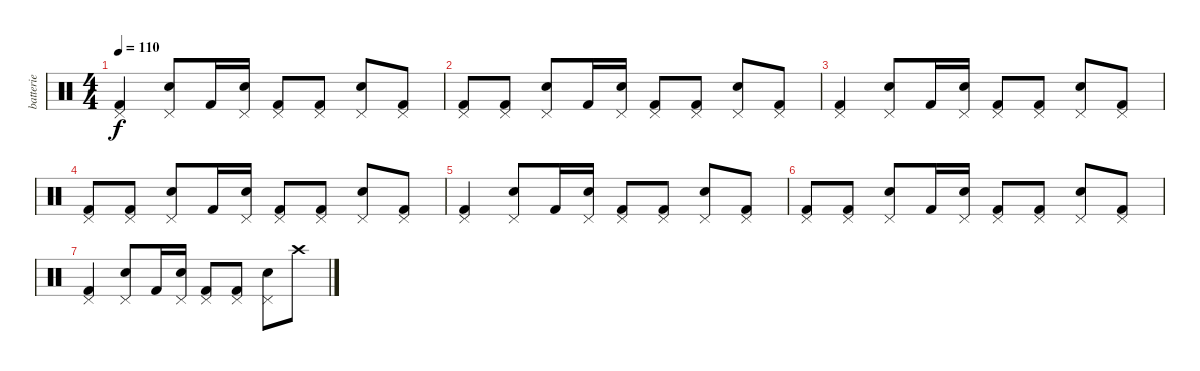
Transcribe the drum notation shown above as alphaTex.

\track ("batterie" "batterie") {instrument percussion}
\staff {score}
\articulation defaults
\ts (4 4)
\tempo 110
\clef neutral
\ks c
("Pedal Hi-Hat (hit)" "Kick (hit) 2").4{dy f} ("Pedal Hi-Hat (hit)" "Snare (hit) 2").8 "Kick (hit) 2".16 ("Pedal Hi-Hat (hit)" "Snare (hit) 2").16 ("Pedal Hi-Hat (hit)" "Kick (hit) 2").8 ("Pedal Hi-Hat (hit)" "Kick (hit) 2").8 ("Pedal Hi-Hat (hit)" "Snare (hit) 2").8 ("Pedal Hi-Hat (hit)" "Kick (hit) 2").8 |
("Pedal Hi-Hat (hit)" "Kick (hit) 2").8 ("Pedal Hi-Hat (hit)" "Kick (hit) 2").8 ("Pedal Hi-Hat (hit)" "Snare (hit) 2").8 "Kick (hit) 2".16 ("Pedal Hi-Hat (hit)" "Snare (hit) 2").16 ("Pedal Hi-Hat (hit)" "Kick (hit) 2").8 ("Pedal Hi-Hat (hit)" "Kick (hit) 2").8 ("Pedal Hi-Hat (hit)" "Snare (hit) 2").8 ("Pedal Hi-Hat (hit)" "Kick (hit) 2").8 |
("Pedal Hi-Hat (hit)" "Kick (hit) 2").4 ("Pedal Hi-Hat (hit)" "Snare (hit) 2").8 "Kick (hit) 2".16 ("Pedal Hi-Hat (hit)" "Snare (hit) 2").16 ("Pedal Hi-Hat (hit)" "Kick (hit) 2").8 ("Pedal Hi-Hat (hit)" "Kick (hit) 2").8 ("Pedal Hi-Hat (hit)" "Snare (hit) 2").8 ("Pedal Hi-Hat (hit)" "Kick (hit) 2").8 |
("Pedal Hi-Hat (hit)" "Kick (hit) 2").8 ("Pedal Hi-Hat (hit)" "Kick (hit) 2").8 ("Pedal Hi-Hat (hit)" "Snare (hit) 2").8 "Kick (hit) 2".16 ("Pedal Hi-Hat (hit)" "Snare (hit) 2").16 ("Pedal Hi-Hat (hit)" "Kick (hit) 2").8 ("Pedal Hi-Hat (hit)" "Kick (hit) 2").8 ("Pedal Hi-Hat (hit)" "Snare (hit) 2").8 ("Pedal Hi-Hat (hit)" "Kick (hit) 2").8 |
("Pedal Hi-Hat (hit)" "Kick (hit) 2").4 ("Pedal Hi-Hat (hit)" "Snare (hit) 2").8 "Kick (hit) 2".16 ("Pedal Hi-Hat (hit)" "Snare (hit) 2").16 ("Pedal Hi-Hat (hit)" "Kick (hit) 2").8 ("Pedal Hi-Hat (hit)" "Kick (hit) 2").8 ("Pedal Hi-Hat (hit)" "Snare (hit) 2").8 ("Pedal Hi-Hat (hit)" "Kick (hit) 2").8 |
("Pedal Hi-Hat (hit)" "Kick (hit) 2").8 ("Pedal Hi-Hat (hit)" "Kick (hit) 2").8 ("Pedal Hi-Hat (hit)" "Snare (hit) 2").8 "Kick (hit) 2".16 ("Pedal Hi-Hat (hit)" "Snare (hit) 2").16 ("Pedal Hi-Hat (hit)" "Kick (hit) 2").8 ("Pedal Hi-Hat (hit)" "Kick (hit) 2").8 ("Pedal Hi-Hat (hit)" "Snare (hit) 2").8 ("Pedal Hi-Hat (hit)" "Kick (hit) 2").8 |
("Pedal Hi-Hat (hit)" "Kick (hit) 2").4 ("Pedal Hi-Hat (hit)" "Snare (hit) 2").8 "Kick (hit) 2".16 ("Pedal Hi-Hat (hit)" "Snare (hit) 2").16 ("Pedal Hi-Hat (hit)" "Kick (hit) 2").8 ("Pedal Hi-Hat (hit)" "Kick (hit) 2").8 ("Pedal Hi-Hat (hit)" "Snare (hit) 2").8 "Crash high (hit)".8
